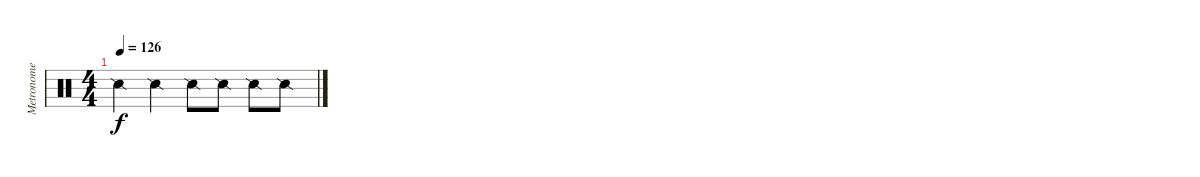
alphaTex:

\track ("Metronome" "Metronome") {instrument percussion}
\staff {score}
\articulation defaults
\ts (4 4)
\tempo 126
\clef neutral
\ks c "Snare (side stick) 2".4{dy f} "Snare (side stick) 2".4 "Snare (side stick) 2".8 "Snare (side stick) 2".8 "Snare (side stick) 2".8 "Snare (side stick) 2".8
